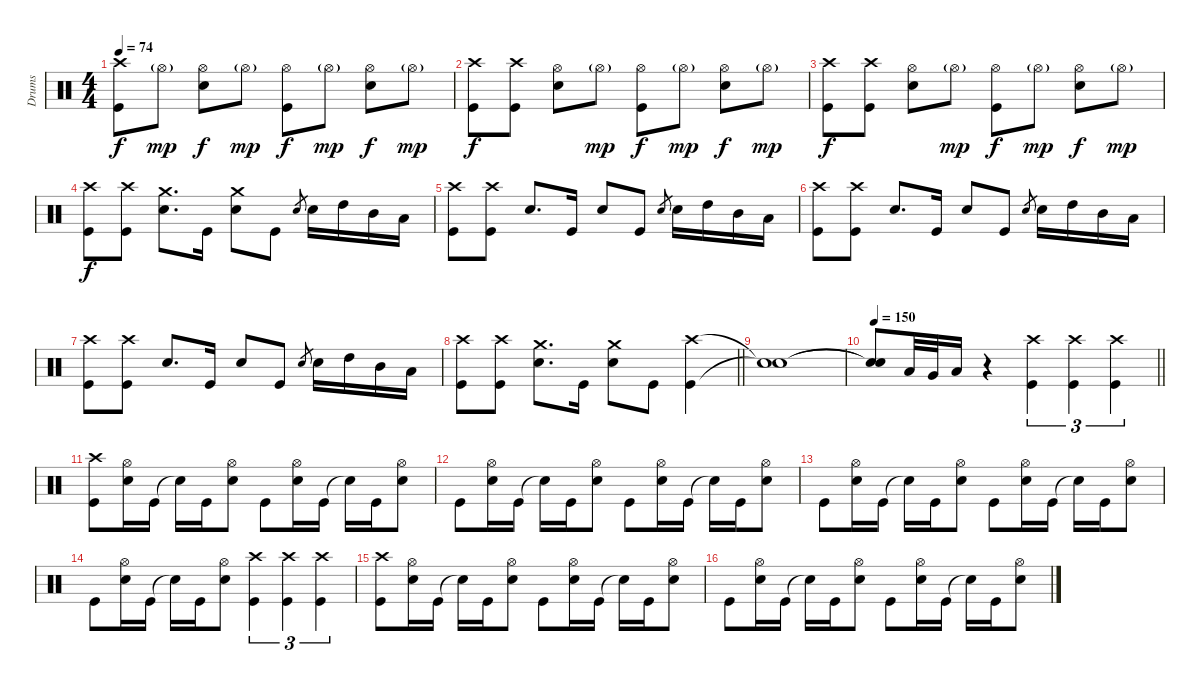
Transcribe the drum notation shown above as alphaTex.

\track ("Drums" "Drums") {instrument percussion}
\staff {score}
\articulation defaults
\ts (4 4)
\tempo 74
\clef neutral
\ks c
("Kick (hit)" "Crash high (hit)").8{dy f} "Hi-Hat (open)"{g}.8{dy mp} ("Snare (hit) 2" "Hi-Hat (open)").8{dy f} "Hi-Hat (open)"{g}.8{dy mp} ("Kick (hit)" "Hi-Hat (open)").8{dy f} "Hi-Hat (open)"{g}.8{dy mp} ("Snare (hit) 2" "Hi-Hat (open)").8{dy f} "Hi-Hat (open)"{g}.8{dy mp} |
("Kick (hit)" "Crash high (hit)").8{dy f} ("Kick (hit)" "Crash high (hit)").8 ("Snare (hit) 2" "Hi-Hat (open)").8 "Hi-Hat (open)"{g}.8{dy mp} ("Kick (hit)" "Hi-Hat (open)").8{dy f} "Hi-Hat (open)"{g}.8{dy mp} ("Snare (hit) 2" "Hi-Hat (open)").8{dy f} "Hi-Hat (open)"{g}.8{dy mp} |
("Kick (hit)" "Crash high (hit)").8{dy f} ("Kick (hit)" "Crash high (hit)").8 ("Snare (hit) 2" "Hi-Hat (open)").8 "Hi-Hat (open)"{g}.8{dy mp} ("Kick (hit)" "Hi-Hat (open)").8{dy f} "Hi-Hat (open)"{g}.8{dy mp} ("Snare (hit) 2" "Hi-Hat (open)").8{dy f} "Hi-Hat (open)"{g}.8{dy mp} |
("Kick (hit)" "Crash high (hit)").8{dy f} ("Kick (hit)" "Crash high (hit)").8 ("Snare (hit) 2" "Crash medium (hit)").8{d} "Kick (hit)".16 ("Snare (hit) 2" "Crash medium (hit)").8 "Kick (hit)".8 "Snare (hit) 2".8{gr} "Snare (hit) 2".16 "High Tom (hit)".16 "Mid Tom (hit)".16 "Low Tom (hit)".16 |
("Kick (hit)" "Crash high (hit)").8 ("Kick (hit)" "Crash high (hit)").8 "Snare (hit) 2".8{d} "Kick (hit)".16 "Snare (hit) 2".8 "Kick (hit)".8 "Snare (hit) 2".8{gr} "Snare (hit) 2".16 "High Tom (hit)".16 "Mid Tom (hit)".16 "Low Tom (hit)".16 |
("Kick (hit)" "Crash high (hit)").8 ("Kick (hit)" "Crash high (hit)").8 "Snare (hit) 2".8{d} "Kick (hit)".16 "Snare (hit) 2".8 "Kick (hit)".8 "Snare (hit) 2".8{gr} "Snare (hit) 2".16 "High Tom (hit)".16 "Mid Tom (hit)".16 "Low Tom (hit)".16 |
("Kick (hit)" "Crash high (hit)").8 ("Kick (hit)" "Crash high (hit)").8 "Snare (hit) 2".8{d} "Kick (hit)".16 "Snare (hit) 2".8 "Kick (hit)".8 "Snare (hit) 2".8{gr} "Snare (hit) 2".16 "High Tom (hit)".16 "Mid Tom (hit)".16 "Low Tom (hit)".16 |
\barLineRight lightlight
("Kick (hit)" "Crash high (hit)").8 ("Kick (hit)" "Crash high (hit)").8 ("Snare (hit) 2" "Crash medium (hit)").8{d} "Kick (hit)".16 ("Snare (hit) 2" "Crash medium (hit)").8 "Kick (hit)".8 ("Kick (hit)" "Crash high (hit)").4 |
("Snare (hit)"{t} "Snare (hit)"{t}).1 |
\tempo 150
\barLineRight lightlight
("Snare (hit)"{t} "Snare (hit)"{t}).8 "Low Floor Tom (hit)".32 "Very Low Tom (hit)".32 "Low Floor Tom (hit)".16 r.4 ("Kick (hit)" "Crash high (hit)").4{tu (3 2)} ("Kick (hit)" "Crash high (hit)").4{tu (3 2)} ("Kick (hit)" "Crash high (hit)").4{tu (3 2)} |
("Kick (hit)" "Crash high (hit)").8 ("Snare (hit) 2" "Hi-Hat (open)").16 "Kick (hit)".16 "Snare (hit)"{t}.16 "Kick (hit)".16 ("Snare (hit) 2" "Hi-Hat (open)").8 "Kick (hit)".8 ("Snare (hit) 2" "Hi-Hat (open)").16 "Kick (hit)".16 "Snare (hit)"{t}.16 "Kick (hit)".16 ("Snare (hit) 2" "Hi-Hat (open)").8 |
"Kick (hit)".8 ("Snare (hit) 2" "Hi-Hat (open)").16 "Kick (hit)".16 "Snare (hit)"{t}.16 "Kick (hit)".16 ("Snare (hit) 2" "Hi-Hat (open)").8 "Kick (hit)".8 ("Snare (hit) 2" "Hi-Hat (open)").16 "Kick (hit)".16 "Snare (hit)"{t}.16 "Kick (hit)".16 ("Snare (hit) 2" "Hi-Hat (open)").8 |
"Kick (hit)".8 ("Snare (hit) 2" "Hi-Hat (open)").16 "Kick (hit)".16 "Snare (hit)"{t}.16 "Kick (hit)".16 ("Snare (hit) 2" "Hi-Hat (open)").8 "Kick (hit)".8 ("Snare (hit) 2" "Hi-Hat (open)").16 "Kick (hit)".16 "Snare (hit)"{t}.16 "Kick (hit)".16 ("Snare (hit) 2" "Hi-Hat (open)").8 |
"Kick (hit)".8 ("Snare (hit) 2" "Hi-Hat (open)").16 "Kick (hit)".16 "Snare (hit)"{t}.16 "Kick (hit)".16 ("Snare (hit) 2" "Hi-Hat (open)").8 ("Kick (hit)" "Crash high (hit)").4{tu (3 2)} ("Kick (hit)" "Crash high (hit)").4{tu (3 2)} ("Kick (hit)" "Crash high (hit)").4{tu (3 2)} |
("Kick (hit)" "Crash high (hit)").8 ("Snare (hit) 2" "Hi-Hat (open)").16 "Kick (hit)".16 "Snare (hit)"{t}.16 "Kick (hit)".16 ("Snare (hit) 2" "Hi-Hat (open)").8 "Kick (hit)".8 ("Snare (hit) 2" "Hi-Hat (open)").16 "Kick (hit)".16 "Snare (hit)"{t}.16 "Kick (hit)".16 ("Snare (hit) 2" "Hi-Hat (open)").8 |
"Kick (hit)".8 ("Snare (hit) 2" "Hi-Hat (open)").16 "Kick (hit)".16 "Snare (hit)"{t}.16 "Kick (hit)".16 ("Snare (hit) 2" "Hi-Hat (open)").8 "Kick (hit)".8 ("Snare (hit) 2" "Hi-Hat (open)").16 "Kick (hit)".16 "Snare (hit)"{t}.16 "Kick (hit)".16 ("Snare (hit) 2" "Hi-Hat (open)").8
